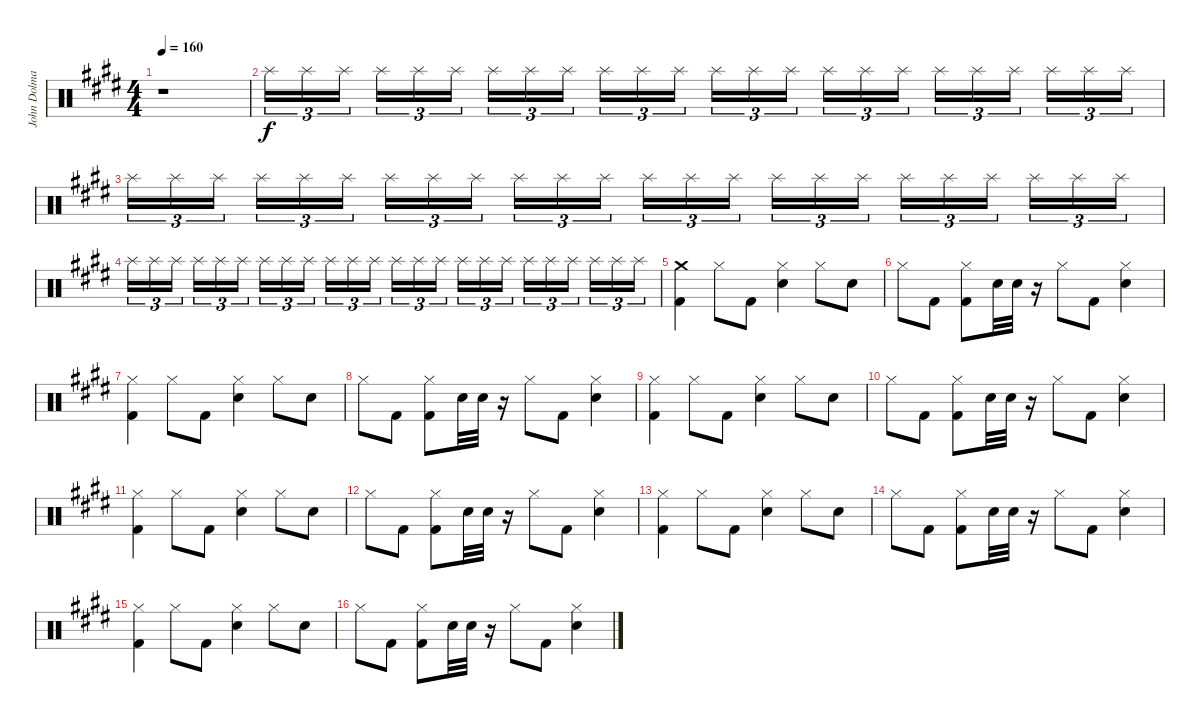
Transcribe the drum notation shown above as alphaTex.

\track ("John Dolmayan [Drums]" "John Dolma") {instrument percussion}
\staff {score}
\articulation defaults
\ts (4 4)
\tempo 160
\clef neutral
\ks c#minor
r.1{dy f} |
"Splash (hit)".16{tu (3 2)} "Splash (hit)".16{tu (3 2)} "Splash (hit)".16{tu (3 2) beam splitsecondary} "Splash (hit)".16{tu (3 2)} "Splash (hit)".16{tu (3 2)} "Splash (hit)".16{tu (3 2)} "Splash (hit)".16{tu (3 2)} "Splash (hit)".16{tu (3 2)} "Splash (hit)".16{tu (3 2) beam splitsecondary} "Splash (hit)".16{tu (3 2)} "Splash (hit)".16{tu (3 2)} "Splash (hit)".16{tu (3 2)} "Splash (hit)".16{tu (3 2)} "Splash (hit)".16{tu (3 2)} "Splash (hit)".16{tu (3 2) beam splitsecondary} "Splash (hit)".16{tu (3 2)} "Splash (hit)".16{tu (3 2)} "Splash (hit)".16{tu (3 2)} "Splash (hit)".16{tu (3 2)} "Splash (hit)".16{tu (3 2)} "Splash (hit)".16{tu (3 2) beam splitsecondary} "Splash (hit)".16{tu (3 2)} "Splash (hit)".16{tu (3 2)} "Splash (hit)".16{tu (3 2)} |
"Splash (hit)".16{tu (3 2)} "Splash (hit)".16{tu (3 2)} "Splash (hit)".16{tu (3 2) beam splitsecondary} "Splash (hit)".16{tu (3 2)} "Splash (hit)".16{tu (3 2)} "Splash (hit)".16{tu (3 2)} "Splash (hit)".16{tu (3 2)} "Splash (hit)".16{tu (3 2)} "Splash (hit)".16{tu (3 2) beam splitsecondary} "Splash (hit)".16{tu (3 2)} "Splash (hit)".16{tu (3 2)} "Splash (hit)".16{tu (3 2)} "Splash (hit)".16{tu (3 2)} "Splash (hit)".16{tu (3 2)} "Splash (hit)".16{tu (3 2) beam splitsecondary} "Splash (hit)".16{tu (3 2)} "Splash (hit)".16{tu (3 2)} "Splash (hit)".16{tu (3 2)} "Splash (hit)".16{tu (3 2)} "Splash (hit)".16{tu (3 2)} "Splash (hit)".16{tu (3 2) beam splitsecondary} "Splash (hit)".16{tu (3 2)} "Splash (hit)".16{tu (3 2)} "Splash (hit)".16{tu (3 2)} |
"Splash (hit)".16{tu (3 2)} "Splash (hit)".16{tu (3 2)} "Splash (hit)".16{tu (3 2) beam splitsecondary} "Splash (hit)".16{tu (3 2)} "Splash (hit)".16{tu (3 2)} "Splash (hit)".16{tu (3 2)} "Splash (hit)".16{tu (3 2)} "Splash (hit)".16{tu (3 2)} "Splash (hit)".16{tu (3 2) beam splitsecondary} "Splash (hit)".16{tu (3 2)} "Splash (hit)".16{tu (3 2)} "Splash (hit)".16{tu (3 2)} "Splash (hit)".16{tu (3 2)} "Splash (hit)".16{tu (3 2)} "Splash (hit)".16{tu (3 2) beam splitsecondary} "Splash (hit)".16{tu (3 2)} "Splash (hit)".16{tu (3 2)} "Splash (hit)".16{tu (3 2)} "Splash (hit)".16{tu (3 2)} "Splash (hit)".16{tu (3 2)} "Splash (hit)".16{tu (3 2) beam splitsecondary} "Splash (hit)".16{tu (3 2)} "Splash (hit)".16{tu (3 2)} "Splash (hit)".16{tu (3 2)} |
("Crash medium (hit)" "Kick (hit) 2").4 "Hi-Hat (closed)".8 "Kick (hit) 2".8 ("Hi-Hat (closed)" "Electric Snare (hit)").4 "Hi-Hat (closed)".8 "Electric Snare (hit)".8 |
"Hi-Hat (closed)".8 "Kick (hit) 2".8 ("Hi-Hat (closed)" "Kick (hit) 2").8 "Snare (hit) 2".32 "Snare (hit) 2".32 r.16 "Hi-Hat (closed)".8 "Kick (hit) 2".8 ("Hi-Hat (closed)" "Electric Snare (hit)").4 |
("Hi-Hat (closed)" "Kick (hit) 2").4 "Hi-Hat (closed)".8 "Kick (hit) 2".8 ("Hi-Hat (closed)" "Electric Snare (hit)").4 "Hi-Hat (closed)".8 "Electric Snare (hit)".8 |
"Hi-Hat (closed)".8 "Kick (hit) 2".8 ("Hi-Hat (closed)" "Kick (hit) 2").8 "Snare (hit) 2".32 "Snare (hit) 2".32 r.16 "Hi-Hat (closed)".8 "Kick (hit) 2".8 ("Hi-Hat (closed)" "Electric Snare (hit)").4 |
("Hi-Hat (closed)" "Kick (hit) 2").4 "Hi-Hat (closed)".8 "Kick (hit) 2".8 ("Hi-Hat (closed)" "Electric Snare (hit)").4 "Hi-Hat (closed)".8 "Electric Snare (hit)".8 |
"Hi-Hat (closed)".8 "Kick (hit) 2".8 ("Hi-Hat (closed)" "Kick (hit) 2").8 "Snare (hit) 2".32 "Snare (hit) 2".32 r.16 "Hi-Hat (closed)".8 "Kick (hit) 2".8 ("Hi-Hat (closed)" "Electric Snare (hit)").4 |
("Hi-Hat (closed)" "Kick (hit) 2").4 "Hi-Hat (closed)".8 "Kick (hit) 2".8 ("Hi-Hat (closed)" "Electric Snare (hit)").4 "Hi-Hat (closed)".8 "Electric Snare (hit)".8 |
"Hi-Hat (closed)".8 "Kick (hit) 2".8 ("Hi-Hat (closed)" "Kick (hit) 2").8 "Snare (hit) 2".32 "Snare (hit) 2".32 r.16 "Hi-Hat (closed)".8 "Kick (hit) 2".8 ("Hi-Hat (closed)" "Electric Snare (hit)").4 |
("Hi-Hat (closed)" "Kick (hit) 2").4 "Hi-Hat (closed)".8 "Kick (hit) 2".8 ("Hi-Hat (closed)" "Electric Snare (hit)").4 "Hi-Hat (closed)".8 "Electric Snare (hit)".8 |
"Hi-Hat (closed)".8 "Kick (hit) 2".8 ("Hi-Hat (closed)" "Kick (hit) 2").8 "Snare (hit) 2".32 "Snare (hit) 2".32 r.16 "Hi-Hat (closed)".8 "Kick (hit) 2".8 ("Hi-Hat (closed)" "Electric Snare (hit)").4 |
("Hi-Hat (closed)" "Kick (hit) 2").4 "Hi-Hat (closed)".8 "Kick (hit) 2".8 ("Hi-Hat (closed)" "Electric Snare (hit)").4 "Hi-Hat (closed)".8 "Electric Snare (hit)".8 |
"Hi-Hat (closed)".8 "Kick (hit) 2".8 ("Hi-Hat (closed)" "Kick (hit) 2").8 "Snare (hit) 2".32 "Snare (hit) 2".32 r.16 "Hi-Hat (closed)".8 "Kick (hit) 2".8 ("Hi-Hat (closed)" "Electric Snare (hit)").4
